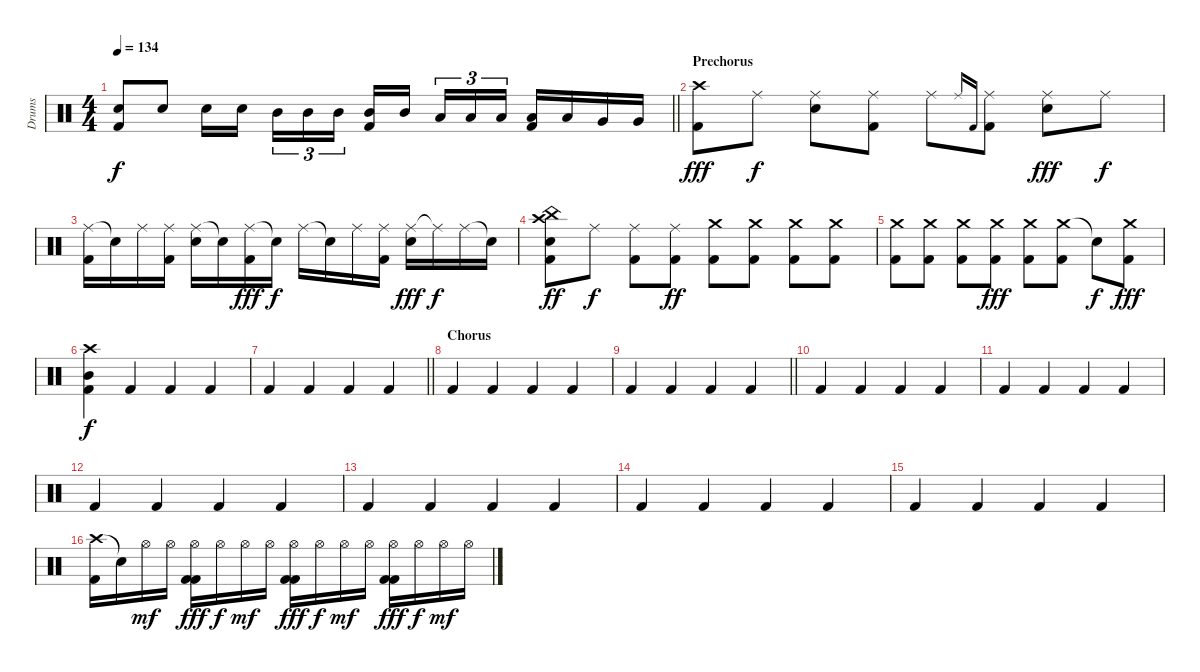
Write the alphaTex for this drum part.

\track ("Drums" "Drums") {instrument percussion}
\staff {score}
\articulation defaults
\ts (4 4)
\tempo 134
\clef neutral
\barLineRight lightlight
\ks c
("Snare (hit) 2" "Kick (hit) 2").8{dy f} "Snare (hit) 2".8 "Snare (hit) 2".16 "Snare (hit) 2".16{beam splitsecondary} "Mid Tom (hit)".16{tu (3 2)} "Mid Tom (hit)".16{tu (3 2)} "Mid Tom (hit)".16{tu (3 2)} ("Mid Tom (hit)" "Kick (hit) 2").16 "Mid Tom (hit)".16{beam splitsecondary} "Low Tom (hit)".16{tu (3 2)} "Low Tom (hit)".16{tu (3 2)} "Low Tom (hit)".16{tu (3 2)} ("Low Tom (hit)" "Kick (hit) 2").16 "Low Tom (hit)".16 "Very Low Tom (hit)".16 "Very Low Tom (hit)".16 |
\section ("" "Prechorus")
("Crash high (hit)" "Kick (hit) 2").8{dy fff} "Ride (middle)".8{dy f} ("Ride (middle)" "Snare (hit) 2").8 ("Ride (middle)" "Kick (hit) 2").8 "Ride (middle)".8 "Ride (middle)".16{gr onbeat} "Kick (hit) 2".16{gr onbeat} ("Ride (middle)" "Kick (hit) 2").8 ("Ride (middle)" "Snare (hit) 2").8{dy fff} "Ride (middle)".8{dy f} |
("Ride (middle)" "Kick (hit) 2").16 "Snare (hit)"{t}.16 "Ride (middle)".16 ("Ride (middle)" "Kick (hit) 2").16 ("Ride (middle)" "Snare (hit) 2").16 "Snare (hit)"{t}.16 ("Ride (middle)" "Kick (hit) 2").16{dy fff} "Snare (hit)"{t}.16{dy f} "Ride (middle)".16 "Snare (hit)"{t}.16 "Ride (middle)".16 ("Ride (middle)" "Kick (hit) 2").16 ("Ride (middle)" "Snare (hit) 2").16{dy fff} "Ride (middle)"{t}.16{dy f} "Ride (middle)".16 "Snare (hit)"{t}.16 |
("China (hit)" "Crash high (hit)" "Snare (hit) 2" "Kick (hit) 2").8{dy ff} "Ride (middle)".8{dy f} ("Ride (middle)" "Kick (hit) 2").8 ("Ride (middle)" "Kick (hit) 2").8{dy ff} ("Crash medium (hit)" "Kick (hit) 2").8 ("Crash medium (hit)" "Kick (hit) 2").8 ("Crash medium (hit)" "Kick (hit) 2").8 ("Crash medium (hit)" "Kick (hit) 2").8 |
("Crash medium (hit)" "Kick (hit) 2").8 ("Crash medium (hit)" "Kick (hit) 2").8 ("Crash medium (hit)" "Kick (hit) 2").8 ("Crash medium (hit)" "Kick (hit) 2").8{dy fff} ("Crash medium (hit)" "Kick (hit) 2").8 ("Crash medium (hit)" "Kick (hit) 2").8 "Snare (hit)"{t}.8{dy f} ("Crash medium (hit)" "Kick (hit) 2").8{dy fff} |
("Crash high (hit)" "Mid Tom (hit)" "Kick (hit) 2").4{dy f} "Kick (hit) 2".4 "Kick (hit) 2".4 "Kick (hit) 2".4 |
\barLineRight lightlight "Kick (hit) 2".4 "Kick (hit) 2".4 "Kick (hit) 2".4 "Kick (hit) 2".4
|
\section ("" "Chorus")
"Kick (hit) 2".4 "Kick (hit) 2".4 "Kick (hit) 2".4 "Kick (hit) 2".4 |
\barLineRight lightlight "Kick (hit) 2".4 "Kick (hit) 2".4 "Kick (hit) 2".4 "Kick (hit) 2".4
|
"Kick (hit) 2".4 "Kick (hit) 2".4 "Kick (hit) 2".4 "Kick (hit) 2".4 |
"Kick (hit) 2".4 "Kick (hit) 2".4 "Kick (hit) 2".4 "Kick (hit) 2".4 |
"Kick (hit) 2".4 "Kick (hit) 2".4 "Kick (hit) 2".4 "Kick (hit) 2".4 |
"Kick (hit) 2".4 "Kick (hit) 2".4 "Kick (hit) 2".4 "Kick (hit) 2".4 |
"Kick (hit) 2".4 "Kick (hit) 2".4 "Kick (hit) 2".4 "Kick (hit) 2".4 |
"Kick (hit) 2".4 "Kick (hit) 2".4 "Kick (hit) 2".4 "Kick (hit) 2".4 |
("Crash high (hit)" "Kick (hit) 2").16 "Snare (hit)"{t}.16 "Hi-Hat (open)".16{dy mf} "Hi-Hat (open)".16 ("Hi-Hat (open)" "Kick (hit) 2" "Kick (hit) 2").16{dy fff} "Hi-Hat (open)".16{dy f} "Hi-Hat (open)".16{dy mf} "Hi-Hat (open)".16 ("Hi-Hat (open)" "Kick (hit) 2" "Kick (hit) 2").16{dy fff} "Hi-Hat (open)".16{dy f} "Hi-Hat (open)".16{dy mf} "Hi-Hat (open)".16 ("Hi-Hat (open)" "Kick (hit) 2" "Kick (hit) 2").16{dy fff} "Hi-Hat (open)".16{dy f} "Hi-Hat (open)".16{dy mf} "Hi-Hat (open)".16
